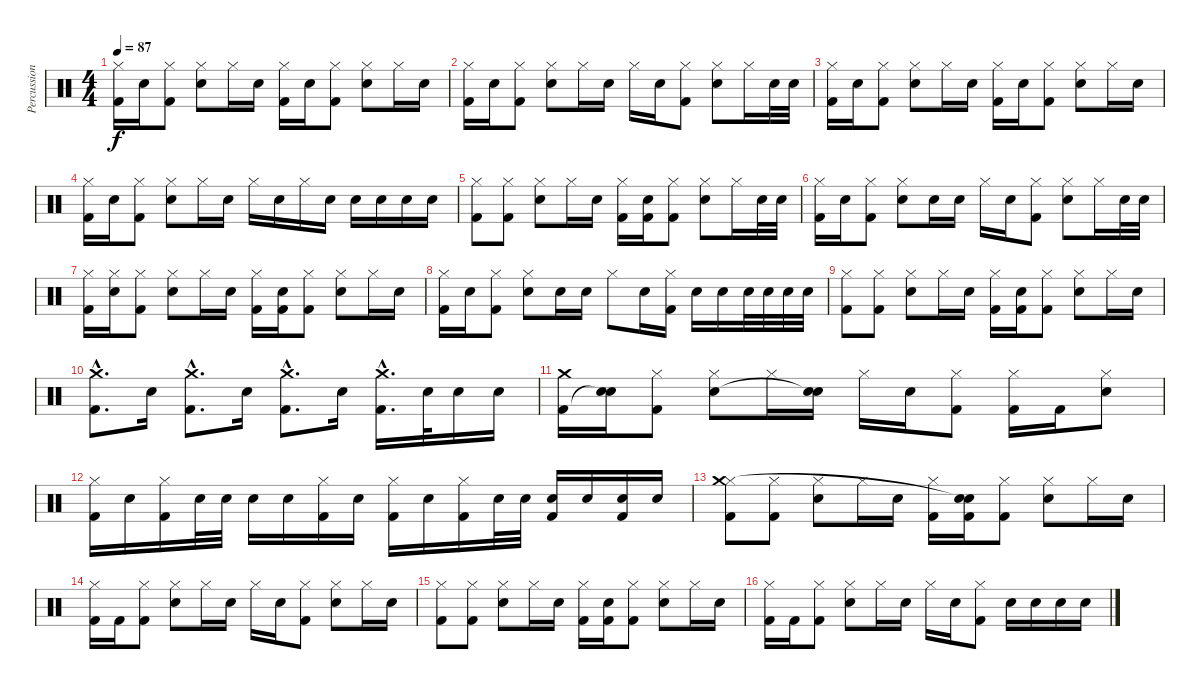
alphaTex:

\track ("Percussion" "Percussion") {instrument percussion}
\staff {score}
\articulation defaults
\ts (4 4)
\tempo 87
\clef neutral
\ks c
("Hi-Hat (closed)" "Kick (hit) 2").16{dy f} "Electric Snare (hit)".16 ("Hi-Hat (closed)" "Kick (hit) 2").8 ("Hi-Hat (closed)" "Electric Snare (hit)").8 "Hi-Hat (closed)".16 "Electric Snare (hit)".16 ("Hi-Hat (closed)" "Kick (hit) 2").16 "Electric Snare (hit)".16 ("Hi-Hat (closed)" "Kick (hit) 2").8 ("Hi-Hat (closed)" "Electric Snare (hit)").8 "Hi-Hat (closed)".16 "Electric Snare (hit)".16 |
("Hi-Hat (closed)" "Kick (hit) 2").16 "Electric Snare (hit)".16 ("Hi-Hat (closed)" "Kick (hit) 2").8 ("Hi-Hat (closed)" "Electric Snare (hit)").8 "Hi-Hat (closed)".16 "Electric Snare (hit)".16 "Hi-Hat (closed)".16 "Electric Snare (hit)".16 ("Hi-Hat (closed)" "Kick (hit) 2").8 ("Hi-Hat (closed)" "Electric Snare (hit)").8 "Hi-Hat (closed)".16 "Electric Snare (hit)".32 "Electric Snare (hit)".32 |
("Hi-Hat (closed)" "Kick (hit) 2").16 "Electric Snare (hit)".16 ("Hi-Hat (closed)" "Kick (hit) 2").8 ("Hi-Hat (closed)" "Electric Snare (hit)").8 "Hi-Hat (closed)".16 "Electric Snare (hit)".16 ("Hi-Hat (closed)" "Kick (hit) 2").16 "Electric Snare (hit)".16 ("Hi-Hat (closed)" "Kick (hit) 2").8 ("Hi-Hat (closed)" "Electric Snare (hit)").8 "Hi-Hat (closed)".16 "Electric Snare (hit)".16 |
("Hi-Hat (closed)" "Kick (hit) 2").16 "Electric Snare (hit)".16 ("Hi-Hat (closed)" "Kick (hit) 2").8 ("Hi-Hat (closed)" "Electric Snare (hit)").8 "Hi-Hat (closed)".16 "Electric Snare (hit)".16 "Hi-Hat (closed)".16 "Electric Snare (hit)".16 "Hi-Hat (closed)".16 "Electric Snare (hit)".16 "Electric Snare (hit)".16 "Electric Snare (hit)".16 "Electric Snare (hit)".16 "Electric Snare (hit)".16 |
("Hi-Hat (closed)" "Kick (hit) 2").8 ("Hi-Hat (closed)" "Kick (hit) 2").8 ("Hi-Hat (closed)" "Electric Snare (hit)").8 "Hi-Hat (closed)".16 "Electric Snare (hit)".16 ("Hi-Hat (closed)" "Kick (hit) 2").16 ("Electric Snare (hit)" "Kick (hit) 2").16 ("Hi-Hat (closed)" "Kick (hit) 2").8 ("Hi-Hat (closed)" "Electric Snare (hit)").8 "Hi-Hat (closed)".16 "Electric Snare (hit)".32 "Electric Snare (hit)".32 |
("Hi-Hat (closed)" "Kick (hit) 2").16 "Electric Snare (hit)".16 ("Hi-Hat (closed)" "Kick (hit) 2").8 ("Hi-Hat (closed)" "Electric Snare (hit)").8 "Electric Snare (hit)".16 "Electric Snare (hit)".16 "Hi-Hat (closed)".16 "Electric Snare (hit)".16 ("Hi-Hat (closed)" "Kick (hit) 2").8 ("Hi-Hat (closed)" "Electric Snare (hit)").8 "Hi-Hat (closed)".16 "Electric Snare (hit)".32 "Electric Snare (hit)".32 |
("Hi-Hat (closed)" "Kick (hit) 2").16 ("Hi-Hat (closed)" "Electric Snare (hit)").16 ("Hi-Hat (closed)" "Kick (hit) 2").8 ("Hi-Hat (closed)" "Electric Snare (hit)").8 "Hi-Hat (closed)".16 "Electric Snare (hit)".16 ("Hi-Hat (closed)" "Kick (hit) 2").16 ("Electric Snare (hit)" "Kick (hit) 2").16 ("Hi-Hat (closed)" "Kick (hit) 2").8 ("Hi-Hat (closed)" "Electric Snare (hit)").8 "Hi-Hat (closed)".16 "Electric Snare (hit)".16 |
("Hi-Hat (closed)" "Kick (hit) 2").16 "Electric Snare (hit)".16 ("Hi-Hat (closed)" "Kick (hit) 2").8 ("Hi-Hat (closed)" "Electric Snare (hit)").8 "Electric Snare (hit)".16 "Electric Snare (hit)".16 "Hi-Hat (closed)".8 "Electric Snare (hit)".16 ("Hi-Hat (closed)" "Kick (hit) 2").16 "Electric Snare (hit)".16 "Electric Snare (hit)".16 "Electric Snare (hit)".32 "Electric Snare (hit)".32 "Electric Snare (hit)".32 "Electric Snare (hit)".32 |
("Hi-Hat (closed)" "Kick (hit) 2").8 ("Hi-Hat (closed)" "Kick (hit) 2").8 ("Hi-Hat (closed)" "Electric Snare (hit)").8 "Hi-Hat (closed)".16 "Electric Snare (hit)".16 ("Hi-Hat (closed)" "Kick (hit) 2").16 ("Electric Snare (hit)" "Kick (hit) 2").16 ("Hi-Hat (closed)" "Kick (hit) 2").8 ("Hi-Hat (closed)" "Electric Snare (hit)").8 "Hi-Hat (closed)".16 "Electric Snare (hit)".16 |
("Crash medium (hit)"{hac} "Kick (hit) 2"{hac}).8{d} "Electric Snare (hit)".16 ("Crash medium (hit)"{hac} "Kick (hit) 2"{hac}).8{d} "Electric Snare (hit)".16 ("Crash medium (hit)"{hac} "Kick (hit) 2"{hac}).8{d} "Electric Snare (hit)".16 ("Crash medium (hit)"{hac} "Kick (hit) 2"{hac}).16{d} "Electric Snare (hit)".32 "Electric Snare (hit)".16 "Electric Snare (hit)".16 |
("Kick (hit) 2" "Crash medium (hit)").16 ("Snare (hit)"{t} "Electric Snare (hit)").16 ("Hi-Hat (closed)" "Kick (hit) 2").8 ("Hi-Hat (closed)" "Electric Snare (hit)").8 "Hi-Hat (closed)".16 ("Electric Snare (hit)" "Snare (hit)"{t}).16 "Hi-Hat (closed)".16 "Electric Snare (hit)".16 ("Hi-Hat (closed)" "Kick (hit) 2").8 ("Hi-Hat (closed)" "Kick (hit) 2").16 "Kick (hit) 2".16 ("Hi-Hat (closed)" "Electric Snare (hit)").8 |
("Hi-Hat (closed)" "Kick (hit) 2").16 "Electric Snare (hit)".16 ("Hi-Hat (closed)" "Kick (hit) 2").16 "Electric Snare (hit)".32 "Electric Snare (hit)".32 "Electric Snare (hit)".16 "Electric Snare (hit)".16 ("Hi-Hat (closed)" "Kick (hit) 2").16 "Electric Snare (hit)".16 ("Hi-Hat (closed)" "Kick (hit) 2").16 "Electric Snare (hit)".16 ("Hi-Hat (closed)" "Kick (hit) 2").16 "Electric Snare (hit)".32 "Electric Snare (hit)".32 ("Electric Snare (hit)" "Kick (hit) 2").16 "Electric Snare (hit)".16 ("Electric Snare (hit)" "Kick (hit) 2").16 "Electric Snare (hit)".16 |
("Hi-Hat (closed)" "Kick (hit) 2" "Crash medium (hit)").8 ("Hi-Hat (closed)" "Kick (hit) 2").8 ("Hi-Hat (closed)" "Electric Snare (hit)").8 "Hi-Hat (closed)".16 "Electric Snare (hit)".16 ("Hi-Hat (closed)" "Kick (hit) 2").16 ("Electric Snare (hit)" "Kick (hit) 2" "Snare (hit)"{t}).16 ("Hi-Hat (closed)" "Kick (hit) 2").8 ("Hi-Hat (closed)" "Electric Snare (hit)").8 "Hi-Hat (closed)".16 "Electric Snare (hit)".16 |
("Hi-Hat (closed)" "Kick (hit) 2").16 "Kick (hit) 2".16 ("Hi-Hat (closed)" "Kick (hit) 2").8 ("Hi-Hat (closed)" "Electric Snare (hit)").8 "Hi-Hat (closed)".16 "Electric Snare (hit)".16 "Hi-Hat (closed)".16 "Electric Snare (hit)".16 ("Hi-Hat (closed)" "Kick (hit) 2").8 ("Hi-Hat (closed)" "Electric Snare (hit)").8 "Hi-Hat (closed)".16 "Electric Snare (hit)".16 |
("Hi-Hat (closed)" "Kick (hit) 2").8 ("Hi-Hat (closed)" "Kick (hit) 2").8 ("Hi-Hat (closed)" "Electric Snare (hit)").8 "Hi-Hat (closed)".16 "Electric Snare (hit)".16 ("Hi-Hat (closed)" "Kick (hit) 2").16 ("Electric Snare (hit)" "Kick (hit) 2").16 ("Hi-Hat (closed)" "Kick (hit) 2").8 ("Hi-Hat (closed)" "Electric Snare (hit)").8 "Hi-Hat (closed)".16 "Electric Snare (hit)".16 |
("Hi-Hat (closed)" "Kick (hit) 2").16 "Kick (hit) 2".16 ("Hi-Hat (closed)" "Kick (hit) 2").8 ("Hi-Hat (closed)" "Electric Snare (hit)").8 "Hi-Hat (closed)".16 "Electric Snare (hit)".16 "Hi-Hat (closed)".16 "Electric Snare (hit)".16 ("Hi-Hat (closed)" "Kick (hit) 2").8 "Electric Snare (hit)".16 "Electric Snare (hit)".16 "Electric Snare (hit)".16 "Electric Snare (hit)".16
